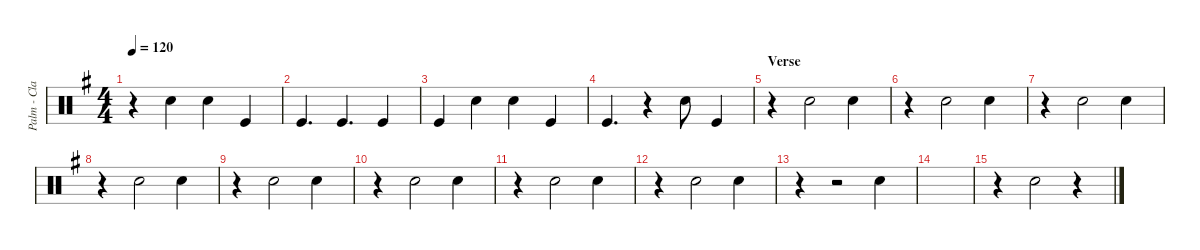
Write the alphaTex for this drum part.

\defaultSystemsLayout 4
\hideDynamics
\bracketExtendMode nobrackets
\otherSystemsTrackNameOrientation horizontal
\track ("Palm - Clap" "Palm - Cla") {defaultSystemsLayout 2 instrument percussion}
\staff {score}
\articulation defaults
\ts (4 4)
\tempo 120
\clef neutral
\ks g
r.4{dy mp} "Hand Clap (hit)"{acc forcenatural}.4 "Hand Clap (hit)"{acc forcenatural}.4 "Kick (hit)"{acc forcenatural}.4 |
"Kick (hit)"{acc forcenatural}.4{d} "Kick (hit)"{acc forcenatural}.4{d} "Kick (hit)"{acc forcenatural}.4 |
"Kick (hit)"{acc forcenatural}.4 "Hand Clap (hit)"{acc forcenatural}.4 "Hand Clap (hit)"{acc forcenatural}.4 "Kick (hit)"{acc forcenatural}.4 |
"Kick (hit)"{acc forcenatural}.4{d} r.4 "Hand Clap (hit)"{acc forcenatural}.8 "Kick (hit)"{acc forcenatural}.4 |
\section ("" "Verse")
r.4 "Hand Clap (hit)"{acc forcenatural}.2 "Hand Clap (hit)"{acc forcenatural}.4 |
r.4 "Hand Clap (hit)"{acc forcenatural}.2 "Hand Clap (hit)"{acc forcenatural}.4 |
r.4 "Hand Clap (hit)"{acc forcenatural}.2 "Hand Clap (hit)"{acc forcenatural}.4 |
r.4 "Hand Clap (hit)"{acc forcenatural}.2 "Hand Clap (hit)"{acc forcenatural}.4 |
r.4 "Hand Clap (hit)"{acc forcenatural}.2 "Hand Clap (hit)"{acc forcenatural}.4 |
r.4 "Hand Clap (hit)"{acc forcenatural}.2 "Hand Clap (hit)"{acc forcenatural}.4 |
r.4 "Hand Clap (hit)"{acc forcenatural}.2 "Hand Clap (hit)"{acc forcenatural}.4 |
r.4 "Hand Clap (hit)"{acc forcenatural}.2 "Hand Clap (hit)"{acc forcenatural}.4 |
r.4 r.2 "Hand Clap (hit)"{acc forcenatural}.4 |
|
r.4 "Hand Clap (hit)"{acc forcenatural}.2 r.4
